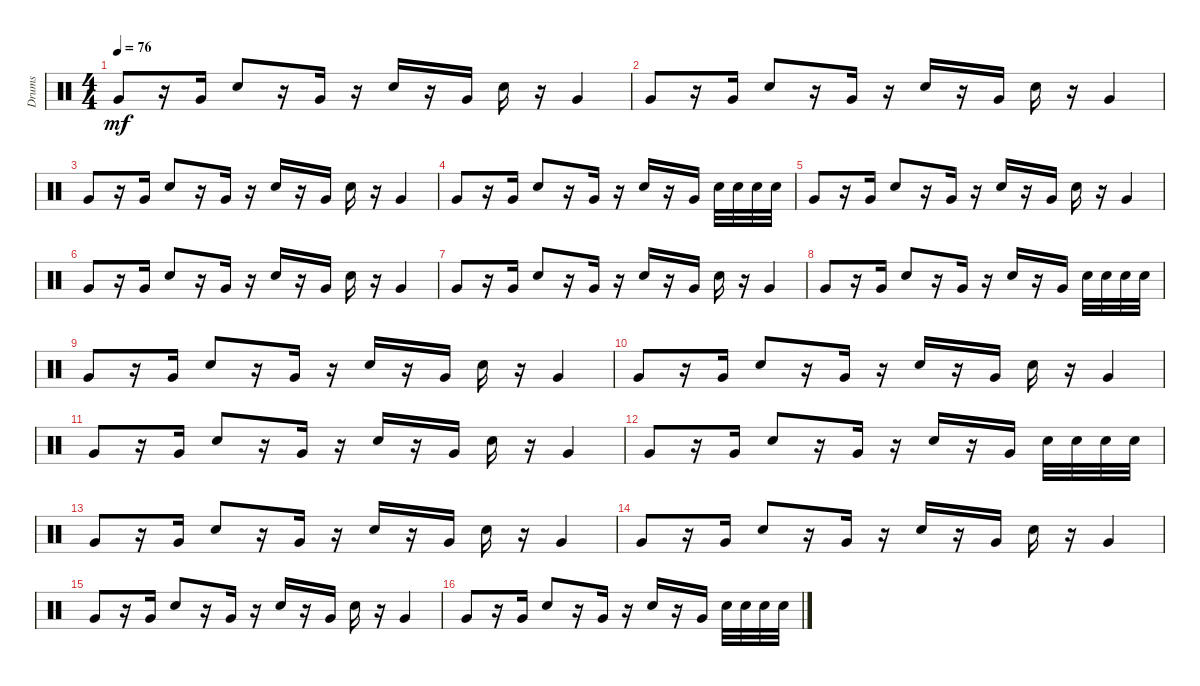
\track ("Drumkit" "Drums") {instrument percussion}
\staff {score}
\articulation defaults
\ts (4 4)
\tempo 76
\clef neutral
\ks c "Very Low Tom (hit)".8{dy mf}
r.16 "Very Low Tom (hit)".16 "Snare (hit) 2".8 r.16 "Very Low Tom (hit)".16 r.16 "Snare (hit) 2".16 r.16 "Very Low Tom (hit)".16 "Snare (hit) 2".16 r.16 "Very Low Tom (hit)".4 |
"Very Low Tom (hit)".8 r.16 "Very Low Tom (hit)".16 "Snare (hit) 2".8 r.16 "Very Low Tom (hit)".16 r.16 "Snare (hit) 2".16 r.16 "Very Low Tom (hit)".16 "Snare (hit) 2".16 r.16 "Very Low Tom (hit)".4 |
"Very Low Tom (hit)".8 r.16 "Very Low Tom (hit)".16 "Snare (hit) 2".8 r.16 "Very Low Tom (hit)".16 r.16 "Snare (hit) 2".16 r.16 "Very Low Tom (hit)".16 "Snare (hit) 2".16 r.16 "Very Low Tom (hit)".4 |
"Very Low Tom (hit)".8 r.16 "Very Low Tom (hit)".16 "Snare (hit) 2".8 r.16 "Very Low Tom (hit)".16 r.16 "Snare (hit) 2".16 r.16 "Very Low Tom (hit)".16 "Snare (hit) 2".32 "Snare (hit) 2".32 "Snare (hit) 2".32 "Snare (hit) 2".32 |
"Very Low Tom (hit)".8 r.16 "Very Low Tom (hit)".16 "Snare (hit) 2".8 r.16 "Very Low Tom (hit)".16 r.16 "Snare (hit) 2".16 r.16 "Very Low Tom (hit)".16 "Snare (hit) 2".16 r.16 "Very Low Tom (hit)".4 |
"Very Low Tom (hit)".8 r.16 "Very Low Tom (hit)".16 "Snare (hit) 2".8 r.16 "Very Low Tom (hit)".16 r.16 "Snare (hit) 2".16 r.16 "Very Low Tom (hit)".16 "Snare (hit) 2".16 r.16 "Very Low Tom (hit)".4 |
"Very Low Tom (hit)".8 r.16 "Very Low Tom (hit)".16 "Snare (hit) 2".8 r.16 "Very Low Tom (hit)".16 r.16 "Snare (hit) 2".16 r.16 "Very Low Tom (hit)".16 "Snare (hit) 2".16 r.16 "Very Low Tom (hit)".4 |
"Very Low Tom (hit)".8 r.16 "Very Low Tom (hit)".16 "Snare (hit) 2".8 r.16 "Very Low Tom (hit)".16 r.16 "Snare (hit) 2".16 r.16 "Very Low Tom (hit)".16 "Snare (hit) 2".32 "Snare (hit) 2".32 "Snare (hit) 2".32 "Snare (hit) 2".32 |
"Very Low Tom (hit)".8 r.16 "Very Low Tom (hit)".16 "Snare (hit) 2".8 r.16 "Very Low Tom (hit)".16 r.16 "Snare (hit) 2".16 r.16 "Very Low Tom (hit)".16 "Snare (hit) 2".16 r.16 "Very Low Tom (hit)".4 |
"Very Low Tom (hit)".8 r.16 "Very Low Tom (hit)".16 "Snare (hit) 2".8 r.16 "Very Low Tom (hit)".16 r.16 "Snare (hit) 2".16 r.16 "Very Low Tom (hit)".16 "Snare (hit) 2".16 r.16 "Very Low Tom (hit)".4 |
"Very Low Tom (hit)".8 r.16 "Very Low Tom (hit)".16 "Snare (hit) 2".8 r.16 "Very Low Tom (hit)".16 r.16 "Snare (hit) 2".16 r.16 "Very Low Tom (hit)".16 "Snare (hit) 2".16 r.16 "Very Low Tom (hit)".4 |
"Very Low Tom (hit)".8 r.16 "Very Low Tom (hit)".16 "Snare (hit) 2".8 r.16 "Very Low Tom (hit)".16 r.16 "Snare (hit) 2".16 r.16 "Very Low Tom (hit)".16 "Snare (hit) 2".32 "Snare (hit) 2".32 "Snare (hit) 2".32 "Snare (hit) 2".32 |
"Very Low Tom (hit)".8 r.16 "Very Low Tom (hit)".16 "Snare (hit) 2".8 r.16 "Very Low Tom (hit)".16 r.16 "Snare (hit) 2".16 r.16 "Very Low Tom (hit)".16 "Snare (hit) 2".16 r.16 "Very Low Tom (hit)".4 |
"Very Low Tom (hit)".8 r.16 "Very Low Tom (hit)".16 "Snare (hit) 2".8 r.16 "Very Low Tom (hit)".16 r.16 "Snare (hit) 2".16 r.16 "Very Low Tom (hit)".16 "Snare (hit) 2".16 r.16 "Very Low Tom (hit)".4 |
"Very Low Tom (hit)".8 r.16 "Very Low Tom (hit)".16 "Snare (hit) 2".8 r.16 "Very Low Tom (hit)".16 r.16 "Snare (hit) 2".16 r.16 "Very Low Tom (hit)".16 "Snare (hit) 2".16 r.16 "Very Low Tom (hit)".4 |
"Very Low Tom (hit)".8 r.16 "Very Low Tom (hit)".16 "Snare (hit) 2".8 r.16 "Very Low Tom (hit)".16 r.16 "Snare (hit) 2".16 r.16 "Very Low Tom (hit)".16 "Snare (hit) 2".32 "Snare (hit) 2".32 "Snare (hit) 2".32 "Snare (hit) 2".32
